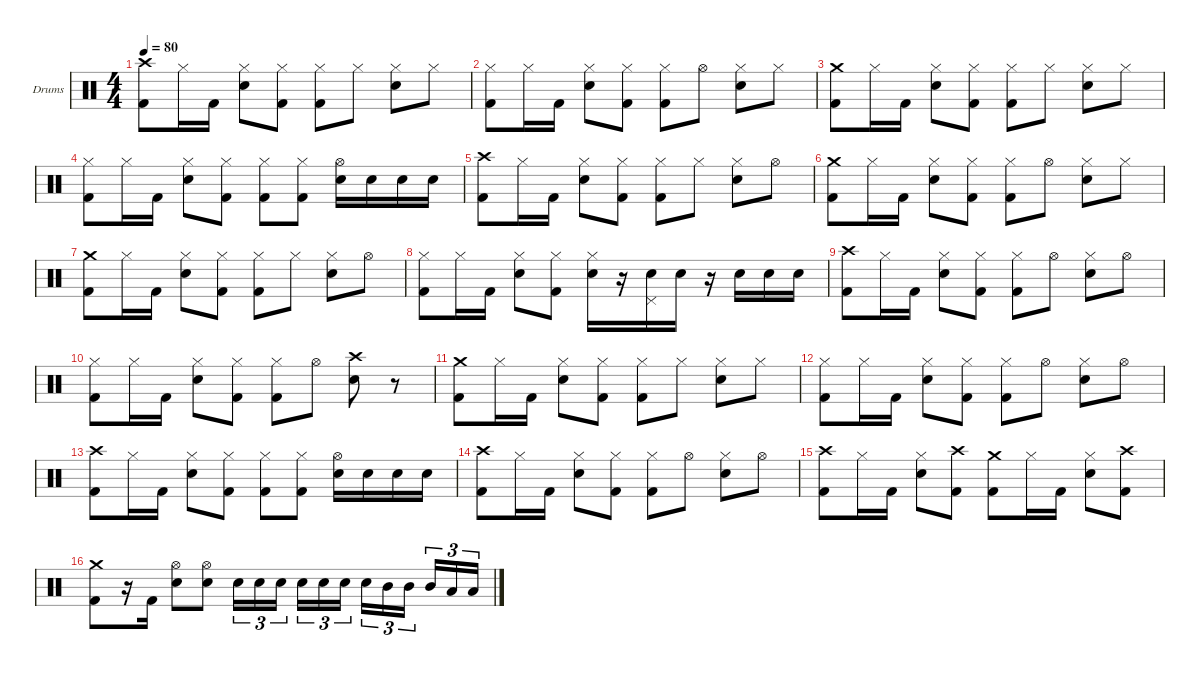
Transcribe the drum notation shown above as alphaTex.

\hideDynamics
\bracketExtendMode nobrackets
\firstSystemTrackNameOrientation horizontal
\otherSystemsTrackNameOrientation horizontal
\track ("Drumkit" "Drums") {instrument percussion}
\staff {score}
\articulation defaults
\ts (4 4)
\tempo 80
\clef neutral
\ks c
("Crash high (hit)" "Kick (hit) 2").8{dy f} "Hi-Hat (closed)".16 "Kick (hit) 2".16 ("Hi-Hat (closed)" "Snare (hit) 2").8 ("Hi-Hat (closed)" "Kick (hit) 2").8 ("Hi-Hat (closed)" "Kick (hit) 2").8 "Hi-Hat (closed)".8 ("Hi-Hat (closed)" "Snare (hit) 2").8 "Hi-Hat (closed)".8 |
("Hi-Hat (closed)" "Kick (hit) 2").8 "Hi-Hat (closed)".16 "Kick (hit) 2".16 ("Hi-Hat (closed)" "Snare (hit) 2").8 ("Hi-Hat (closed)" "Kick (hit) 2").8 ("Hi-Hat (closed)" "Kick (hit) 2").8 "Hi-Hat (open)".8 ("Hi-Hat (closed)" "Snare (hit) 2").8 "Hi-Hat (closed)".8{dy mp} |
("Crash medium (hit)" "Kick (hit) 2").8{dy f} "Hi-Hat (closed)".16 "Kick (hit) 2".16 ("Hi-Hat (closed)" "Snare (hit) 2").8 ("Hi-Hat (closed)" "Kick (hit) 2").8 ("Hi-Hat (closed)" "Kick (hit) 2").8 "Hi-Hat (closed)".8 ("Hi-Hat (closed)" "Snare (hit) 2").8 "Hi-Hat (closed)".8 |
("Hi-Hat (closed)" "Kick (hit) 2").8 "Hi-Hat (closed)".16 "Kick (hit) 2".16 ("Hi-Hat (closed)" "Snare (hit) 2").8 ("Hi-Hat (closed)" "Kick (hit) 2").8 ("Hi-Hat (closed)" "Kick (hit) 2").8 ("Hi-Hat (closed)" "Kick (hit) 2").8 ("Hi-Hat (open)" "Snare (hit) 2").16 "Snare (hit) 2".16 "Snare (hit) 2".16 "Snare (hit) 2".16 |
("Crash high (hit)" "Kick (hit) 2").8 "Hi-Hat (closed)".16 "Kick (hit) 2".16 ("Hi-Hat (closed)" "Snare (hit) 2").8 ("Hi-Hat (closed)" "Kick (hit) 2").8 ("Hi-Hat (closed)" "Kick (hit) 2").8 "Hi-Hat (closed)".8 ("Hi-Hat (closed)" "Snare (hit) 2").8 "Hi-Hat (open)".8 |
("Crash medium (hit)" "Kick (hit) 2").8 "Hi-Hat (closed)".16 "Kick (hit) 2".16 ("Hi-Hat (closed)" "Snare (hit) 2").8 ("Hi-Hat (closed)" "Kick (hit) 2").8 ("Hi-Hat (closed)" "Kick (hit) 2").8 "Hi-Hat (open)".8 ("Hi-Hat (closed)" "Snare (hit) 2").8 "Hi-Hat (closed)".8 |
("Crash medium (hit)" "Kick (hit) 2").8 "Hi-Hat (closed)".16 "Kick (hit) 2".16 ("Hi-Hat (closed)" "Snare (hit) 2").8 ("Hi-Hat (closed)" "Kick (hit) 2").8 ("Hi-Hat (closed)" "Kick (hit) 2").8 "Hi-Hat (closed)".8 ("Hi-Hat (closed)" "Snare (hit) 2").8 "Hi-Hat (open)".8 |
("Hi-Hat (closed)" "Kick (hit) 2").8 "Hi-Hat (closed)".16 "Kick (hit) 2".16 ("Hi-Hat (closed)" "Snare (hit) 2").8 ("Hi-Hat (closed)" "Kick (hit) 2").8 ("Hi-Hat (closed)" "Snare (hit) 2").16 r.16 ("Pedal Hi-Hat (hit)" "Snare (hit) 2").16 "Snare (hit) 2".16 r.16 "Snare (hit) 2".16 "Snare (hit) 2".16 "Snare (hit) 2".16 |
("Crash high (hit)" "Kick (hit) 2").8 "Hi-Hat (closed)".16 "Kick (hit) 2".16 ("Hi-Hat (closed)" "Snare (hit) 2").8 ("Hi-Hat (closed)" "Kick (hit) 2").8 ("Hi-Hat (closed)" "Kick (hit) 2").8 "Hi-Hat (open)".8 ("Hi-Hat (closed)" "Snare (hit) 2").8 "Hi-Hat (open)".8 |
("Hi-Hat (closed)" "Kick (hit) 2").8 "Hi-Hat (closed)".16 "Kick (hit) 2".16 ("Hi-Hat (closed)" "Snare (hit) 2").8 ("Hi-Hat (closed)" "Kick (hit) 2").8 ("Hi-Hat (closed)" "Kick (hit) 2").8 "Hi-Hat (open)".8 ("Crash high (hit)" "Snare (hit) 2").8 r.8 |
("Crash medium (hit)" "Kick (hit) 2").8 "Hi-Hat (closed)".16 "Kick (hit) 2".16 ("Hi-Hat (closed)" "Snare (hit) 2").8 ("Hi-Hat (closed)" "Kick (hit) 2").8 ("Hi-Hat (closed)" "Kick (hit) 2").8 "Hi-Hat (closed)".8 ("Hi-Hat (closed)" "Snare (hit) 2").8 "Hi-Hat (closed)".8{dy mp} |
("Hi-Hat (closed)" "Kick (hit) 2").8{dy f} "Hi-Hat (closed)".16 "Kick (hit) 2".16 ("Hi-Hat (closed)" "Snare (hit) 2").8 ("Hi-Hat (closed)" "Kick (hit) 2").8 ("Hi-Hat (closed)" "Kick (hit) 2").8 "Hi-Hat (open)".8 ("Hi-Hat (closed)" "Snare (hit) 2").8 "Hi-Hat (open)".8 |
("Crash high (hit)" "Kick (hit) 2").8 "Hi-Hat (closed)".16 "Kick (hit) 2".16 ("Hi-Hat (closed)" "Snare (hit) 2").8 ("Hi-Hat (closed)" "Kick (hit) 2").8 ("Hi-Hat (closed)" "Kick (hit) 2").8 ("Hi-Hat (closed)" "Kick (hit) 2").8 ("Hi-Hat (open)" "Snare (hit) 2").16 "Snare (hit) 2".16 "Snare (hit) 2".16 "Snare (hit) 2".16 |
("Crash high (hit)" "Kick (hit) 2").8 "Hi-Hat (closed)".16 "Kick (hit) 2".16 ("Hi-Hat (closed)" "Snare (hit) 2").8 ("Hi-Hat (closed)" "Kick (hit) 2").8 ("Hi-Hat (closed)" "Kick (hit) 2").8 "Hi-Hat (open)".8 ("Hi-Hat (closed)" "Snare (hit) 2").8 "Hi-Hat (open)".8 |
("Crash high (hit)" "Kick (hit) 2").8 "Hi-Hat (closed)".16 "Kick (hit) 2".16 ("Hi-Hat (closed)" "Snare (hit) 2").8 ("Crash high (hit)" "Kick (hit) 2").8 ("Crash medium (hit)" "Kick (hit) 2").8 "Hi-Hat (closed)".16 "Kick (hit) 2".16 ("Hi-Hat (closed)" "Snare (hit) 2").8 ("Crash high (hit)" "Kick (hit) 2").8 |
("Crash medium (hit)" "Kick (hit) 2").8 r.16 "Kick (hit) 2".16 ("Hi-Hat (open)" "Snare (hit) 2").8 ("Hi-Hat (open)" "Snare (hit) 2").8 "Snare (hit) 2".16{tu (3 2)} "Snare (hit) 2".16{tu (3 2)} "Snare (hit) 2".16{tu (3 2)} "Snare (hit) 2".16{tu (3 2)} "Snare (hit) 2".16{tu (3 2)} "Snare (hit) 2".16{tu (3 2)} "Snare (hit) 2".16{tu (3 2)} "Mid Tom (hit)".16{tu (3 2)} "Mid Tom (hit)".16{tu (3 2)} "Mid Tom (hit)".16{tu (3 2)} "Low Tom (hit)".16{tu (3 2)} "Low Tom (hit)".16{tu (3 2)}
